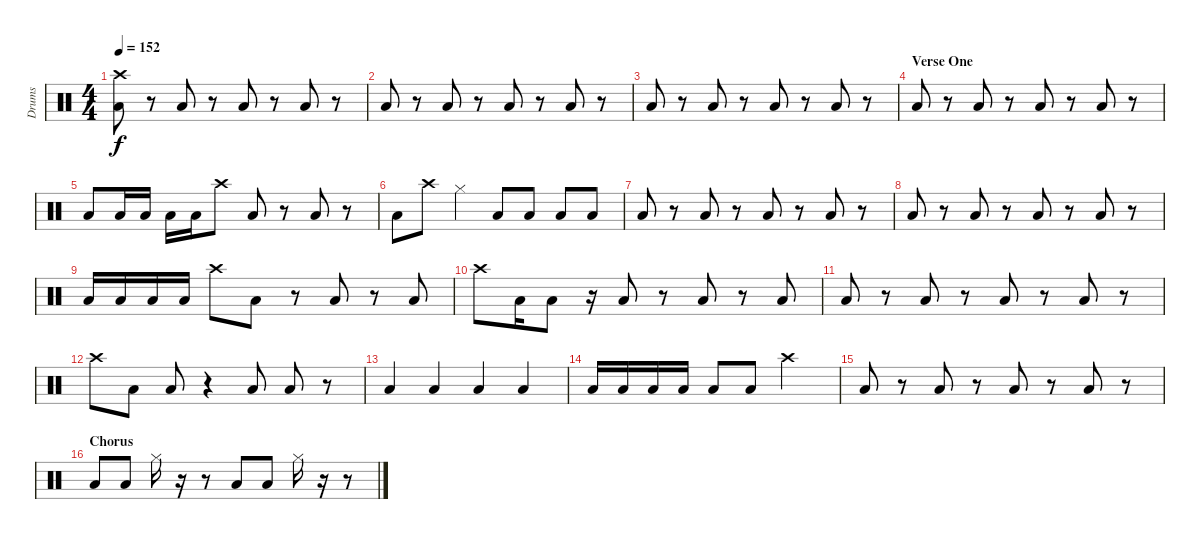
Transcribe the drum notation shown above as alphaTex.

\track ("Drums" "Drums") {instrument percussion}
\staff {score}
\articulation defaults
\ts (4 4)
\tempo 152
\clef neutral
\ks c
("Crash high (hit)" "Low Tom (hit)").8{dy f} r.8 "Low Tom (hit)".8 r.8 "Low Tom (hit)".8 r.8 "Low Tom (hit)".8 r.8 |
"Low Tom (hit)".8 r.8 "Low Tom (hit)".8 r.8 "Low Tom (hit)".8 r.8 "Low Tom (hit)".8 r.8 |
"Low Tom (hit)".8 r.8 "Low Tom (hit)".8 r.8 "Low Tom (hit)".8 r.8 "Low Tom (hit)".8 r.8 |
\section ("" "Verse One")
"Low Tom (hit)".8 r.8 "Low Tom (hit)".8 r.8 "Low Tom (hit)".8 r.8 "Low Tom (hit)".8 r.8 |
"Low Tom (hit)".8 "Low Tom (hit)".16 "Low Tom (hit)".16 "Low Tom (hit)".16 "Low Tom (hit)".16 "Crash high (hit)".8 "Low Tom (hit)".8 r.8 "Low Tom (hit)".8 r.8 |
"Low Tom (hit)".8 "Crash high (hit)".8 "Hi-Hat (closed)".4 "Low Tom (hit)".8 "Low Tom (hit)".8 "Low Tom (hit)".8 "Low Tom (hit)".8 |
"Low Tom (hit)".8 r.8 "Low Tom (hit)".8 r.8 "Low Tom (hit)".8 r.8 "Low Tom (hit)".8 r.8 |
"Low Tom (hit)".8 r.8 "Low Tom (hit)".8 r.8 "Low Tom (hit)".8 r.8 "Low Tom (hit)".8 r.8 |
"Low Tom (hit)".16 "Low Tom (hit)".16 "Low Tom (hit)".16 "Low Tom (hit)".16 "Crash high (hit)".8 "Low Tom (hit)".8 r.8 "Low Tom (hit)".8 r.8 "Low Tom (hit)".8 |
"Crash high (hit)".8 "Low Tom (hit)".16 "Low Tom (hit)".8 r.16 "Low Tom (hit)".8 r.8 "Low Tom (hit)".8 r.8 "Low Tom (hit)".8 |
"Low Tom (hit)".8 r.8 "Low Tom (hit)".8 r.8 "Low Tom (hit)".8 r.8 "Low Tom (hit)".8 r.8 |
"Crash high (hit)".8 "Low Tom (hit)".8 "Low Tom (hit)".8 r.4 "Low Tom (hit)".8 "Low Tom (hit)".8 r.8 |
"Low Tom (hit)".4 "Low Tom (hit)".4 "Low Tom (hit)".4 "Low Tom (hit)".4 |
"Low Tom (hit)".16 "Low Tom (hit)".16 "Low Tom (hit)".16 "Low Tom (hit)".16 "Low Tom (hit)".8 "Low Tom (hit)".8 "Crash high (hit)".2 |
"Low Tom (hit)".8 r.8 "Low Tom (hit)".8 r.8 "Low Tom (hit)".8 r.8 "Low Tom (hit)".8 r.8 |
\section ("" "Chorus")
"Low Tom (hit)".8 "Low Tom (hit)".8 "Hi-Hat (closed)".16 r.16 r.8 "Low Tom (hit)".8 "Low Tom (hit)".8 "Hi-Hat (closed)".16 r.16 r.8
